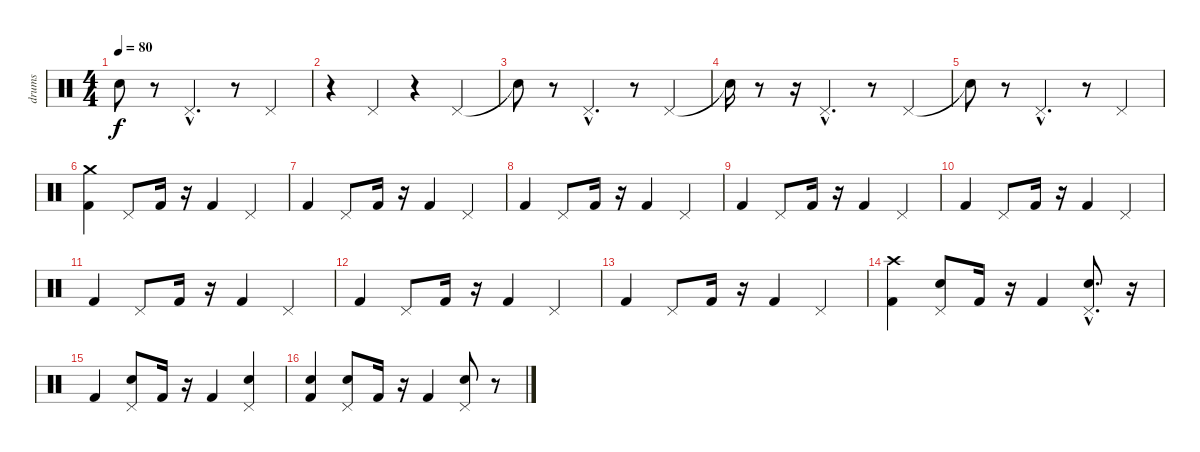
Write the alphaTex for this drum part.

\track ("drums" "drums") {instrument percussion}
\staff {score}
\articulation defaults
\ts (4 4)
\tempo 80
\clef neutral
\ks c "Snare (hit)"{t}.8{dy f}
r.8 "Pedal Hi-Hat (hit)"{hac}.4{d} r.8 "Pedal Hi-Hat (hit)".4 |
r.4 "Pedal Hi-Hat (hit)".4 r.4 "Pedal Hi-Hat (hit)".4 |
"Snare (hit)"{t}.8 r.8 "Pedal Hi-Hat (hit)"{hac}.4{d} r.8 "Pedal Hi-Hat (hit)".4 |
"Snare (hit)"{t}.16 r.8 r.16 "Pedal Hi-Hat (hit)"{hac}.4{d} r.8 "Pedal Hi-Hat (hit)".4 |
"Snare (hit)"{t}.8 r.8 "Pedal Hi-Hat (hit)"{hac}.4{d} r.8 "Pedal Hi-Hat (hit)".4 |
("Crash medium (hit)" "Kick (hit) 2").4 "Pedal Hi-Hat (hit)".8 "Kick (hit) 2".16 r.16 "Kick (hit) 2".4 "Pedal Hi-Hat (hit)".4 |
"Kick (hit) 2".4 "Pedal Hi-Hat (hit)".8 "Kick (hit) 2".16 r.16 "Kick (hit) 2".4 "Pedal Hi-Hat (hit)".4 |
"Kick (hit) 2".4 "Pedal Hi-Hat (hit)".8 "Kick (hit) 2".16 r.16 "Kick (hit) 2".4 "Pedal Hi-Hat (hit)".4 |
"Kick (hit) 2".4 "Pedal Hi-Hat (hit)".8 "Kick (hit) 2".16 r.16 "Kick (hit) 2".4 "Pedal Hi-Hat (hit)".4 |
"Kick (hit) 2".4 "Pedal Hi-Hat (hit)".8 "Kick (hit) 2".16 r.16 "Kick (hit) 2".4 "Pedal Hi-Hat (hit)".4 |
"Kick (hit) 2".4 "Pedal Hi-Hat (hit)".8 "Kick (hit) 2".16 r.16 "Kick (hit) 2".4 "Pedal Hi-Hat (hit)".4 |
"Kick (hit) 2".4 "Pedal Hi-Hat (hit)".8 "Kick (hit) 2".16 r.16 "Kick (hit) 2".4 "Pedal Hi-Hat (hit)".4 |
"Kick (hit) 2".4 "Pedal Hi-Hat (hit)".8 "Kick (hit) 2".16 r.16 "Kick (hit) 2".4 "Pedal Hi-Hat (hit)".4 |
("Kick (hit) 2" "Crash high (hit)").4 ("Snare (hit) 2" "Pedal Hi-Hat (hit)").8 "Kick (hit) 2".16 r.16 "Kick (hit) 2".4 ("Pedal Hi-Hat (hit)"{hac} "Snare (hit) 2"{hac}).8{d} r.16 |
"Kick (hit) 2".4 ("Pedal Hi-Hat (hit)" "Snare (hit) 2").8 "Kick (hit) 2".16 r.16 "Kick (hit) 2".4 ("Pedal Hi-Hat (hit)" "Snare (hit) 2").4 |
("Snare (hit)" "Kick (hit) 2").4 ("Snare (hit) 2" "Pedal Hi-Hat (hit)").8 "Kick (hit) 2".16 r.16 "Kick (hit) 2".4 ("Pedal Hi-Hat (hit)" "Snare (hit) 2").8 r.8
